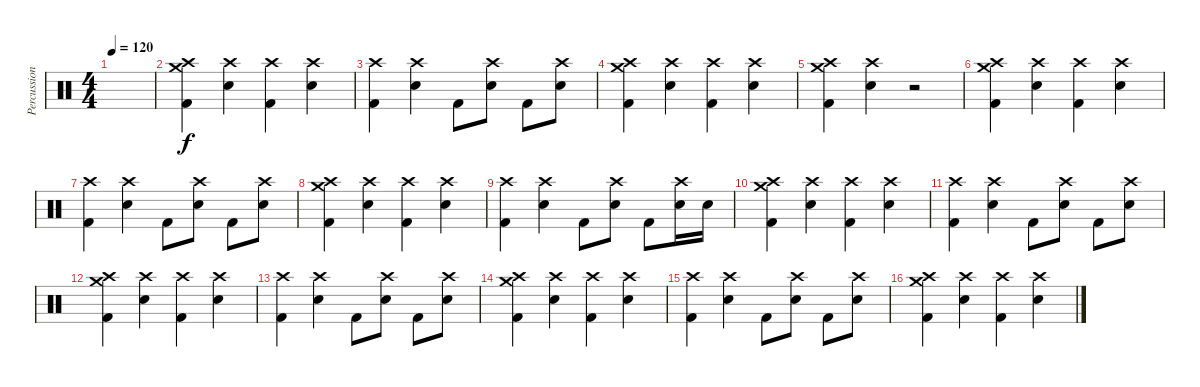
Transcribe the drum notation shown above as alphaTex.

\track ("Percussion" "Percussion") {instrument percussion}
\staff {score}
\articulation defaults
\ts (4 4)
\tempo 120
\clef neutral
\ks c
|
("Kick (hit) 2" "Crash high (hit)" "Crash medium (hit)").4 ("Snare (hit) 2" "Crash high (hit)").4 ("Kick (hit) 2" "Crash high (hit)").4 ("Snare (hit) 2" "Crash high (hit)").4 |
("Kick (hit) 2" "Crash high (hit)").4 ("Snare (hit) 2" "Crash high (hit)").4 "Kick (hit) 2".8 ("Snare (hit) 2" "Crash high (hit)").8 "Kick (hit) 2".8 ("Snare (hit) 2" "Crash high (hit)").8 |
("Kick (hit) 2" "Crash high (hit)" "Crash medium (hit)").4 ("Snare (hit) 2" "Crash high (hit)").4 ("Kick (hit) 2" "Crash high (hit)").4 ("Snare (hit) 2" "Crash high (hit)").4 |
("Kick (hit) 2" "Crash high (hit)" "Crash medium (hit)").4 ("Snare (hit) 2" "Crash high (hit)").4 r.2 |
("Kick (hit) 2" "Crash high (hit)" "Crash medium (hit)").4 ("Snare (hit) 2" "Crash high (hit)").4 ("Kick (hit) 2" "Crash high (hit)").4 ("Snare (hit) 2" "Crash high (hit)").4 |
("Kick (hit) 2" "Crash high (hit)").4 ("Snare (hit) 2" "Crash high (hit)").4 "Kick (hit) 2".8 ("Snare (hit) 2" "Crash high (hit)").8 "Kick (hit) 2".8 ("Snare (hit) 2" "Crash high (hit)").8 |
("Kick (hit) 2" "Crash high (hit)" "Crash medium (hit)").4 ("Snare (hit) 2" "Crash high (hit)").4 ("Kick (hit) 2" "Crash high (hit)").4 ("Snare (hit) 2" "Crash high (hit)").4 |
("Kick (hit) 2" "Crash high (hit)").4 ("Snare (hit) 2" "Crash high (hit)").4 "Kick (hit) 2".8 ("Snare (hit) 2" "Crash high (hit)").8 "Kick (hit) 2".8 ("Snare (hit) 2" "Crash high (hit)").16 "Snare (hit) 2".16 |
("Kick (hit) 2" "Crash high (hit)" "Crash medium (hit)").4 ("Snare (hit) 2" "Crash high (hit)").4 ("Kick (hit) 2" "Crash high (hit)").4 ("Snare (hit) 2" "Crash high (hit)").4 |
("Kick (hit) 2" "Crash high (hit)").4 ("Snare (hit) 2" "Crash high (hit)").4 "Kick (hit) 2".8 ("Snare (hit) 2" "Crash high (hit)").8 "Kick (hit) 2".8 ("Snare (hit) 2" "Crash high (hit)").8 |
("Kick (hit) 2" "Crash high (hit)" "Crash medium (hit)").4 ("Snare (hit) 2" "Crash high (hit)").4 ("Kick (hit) 2" "Crash high (hit)").4 ("Snare (hit) 2" "Crash high (hit)").4 |
("Kick (hit) 2" "Crash high (hit)").4 ("Snare (hit) 2" "Crash high (hit)").4 "Kick (hit) 2".8 ("Snare (hit) 2" "Crash high (hit)").8 "Kick (hit) 2".8 ("Snare (hit) 2" "Crash high (hit)").8 |
("Kick (hit) 2" "Crash high (hit)" "Crash medium (hit)").4 ("Snare (hit) 2" "Crash high (hit)").4 ("Kick (hit) 2" "Crash high (hit)").4 ("Snare (hit) 2" "Crash high (hit)").4 |
("Kick (hit) 2" "Crash high (hit)").4 ("Snare (hit) 2" "Crash high (hit)").4 "Kick (hit) 2".8 ("Snare (hit) 2" "Crash high (hit)").8 "Kick (hit) 2".8 ("Snare (hit) 2" "Crash high (hit)").8 |
("Kick (hit) 2" "Crash high (hit)" "Crash medium (hit)").4 ("Snare (hit) 2" "Crash high (hit)").4 ("Kick (hit) 2" "Crash high (hit)").4 ("Snare (hit) 2" "Crash high (hit)").4
